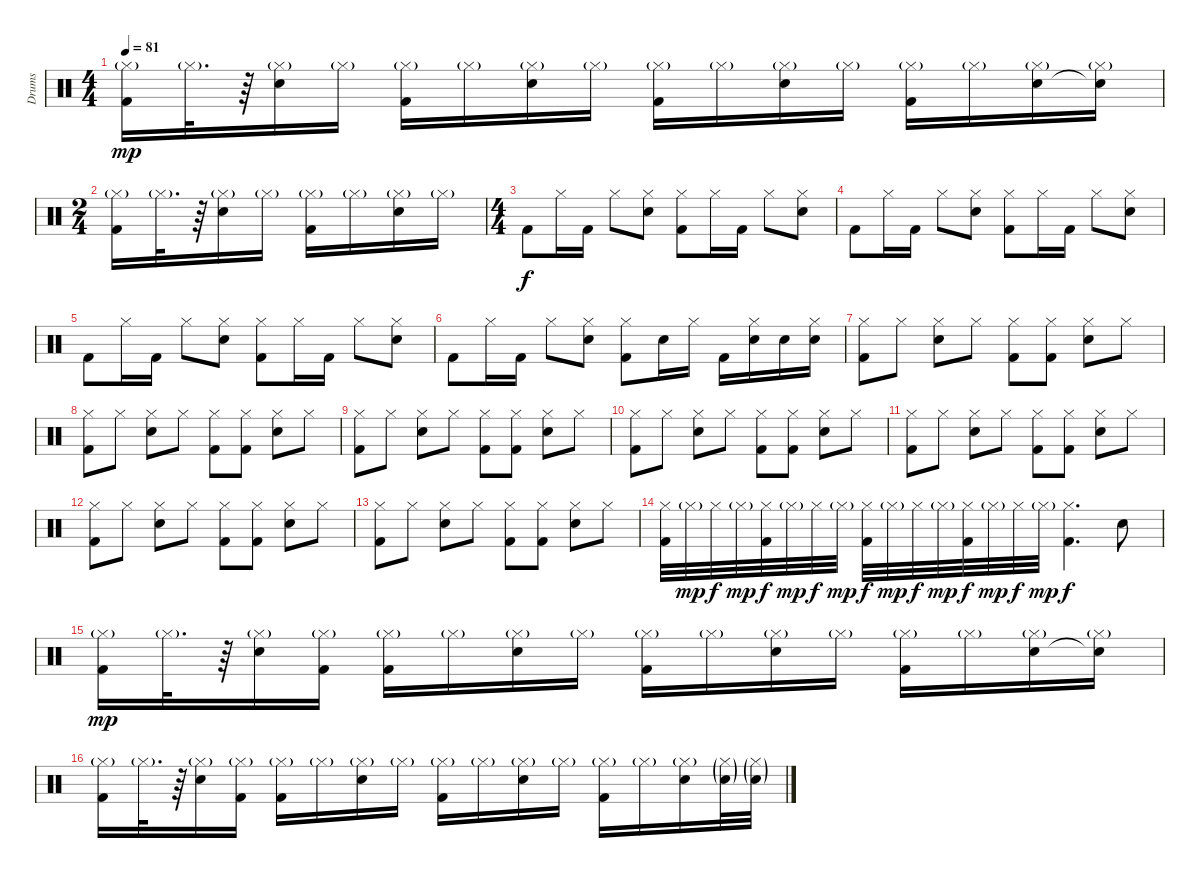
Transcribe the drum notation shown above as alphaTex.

\track ("Drums" "Drums") {instrument percussion}
\staff {score}
\articulation defaults
\ts (4 4)
\tempo 81
\clef neutral
\ks c
("Hi-Hat (closed)"{g} "Kick (hit) 2").16{dy mp} "Hi-Hat (closed)"{g}.32{d} r.64 ("Hi-Hat (closed)"{g} "Snare (hit) 2").16 "Hi-Hat (closed)"{g}.16 ("Hi-Hat (closed)"{g} "Kick (hit) 2").16 "Hi-Hat (closed)"{g}.16 ("Hi-Hat (closed)"{g} "Snare (hit) 2").16 "Hi-Hat (closed)"{g}.16 ("Hi-Hat (closed)"{g} "Kick (hit) 2").16 "Hi-Hat (closed)"{g}.16 ("Hi-Hat (closed)"{g} "Snare (hit) 2").16 "Hi-Hat (closed)"{g}.16 ("Hi-Hat (closed)"{g} "Kick (hit) 2").16 "Hi-Hat (closed)"{g}.16 ("Hi-Hat (closed)"{g} "Snare (hit) 2").16 ("Hi-Hat (closed)"{g} "Snare (hit)"{t}).16 |
\ts (2 4)
("Hi-Hat (closed)"{g} "Kick (hit) 2").16 "Hi-Hat (closed)"{g}.32{d} r.64 ("Hi-Hat (closed)"{g} "Snare (hit) 2").16 "Hi-Hat (closed)"{g}.16 ("Hi-Hat (closed)"{g} "Kick (hit) 2").16 "Hi-Hat (closed)"{g}.16 ("Hi-Hat (closed)"{g} "Snare (hit) 2").16 "Hi-Hat (closed)"{g}.16 |
\ts (4 4)
"Kick (hit) 2".8{dy f} "Hi-Hat (closed)".16 "Kick (hit) 2".16 "Hi-Hat (closed)".8 ("Hi-Hat (closed)" "Snare (hit) 2").8 ("Hi-Hat (closed)" "Kick (hit) 2").8 "Hi-Hat (closed)".16 "Kick (hit) 2".16 "Hi-Hat (closed)".8 ("Hi-Hat (closed)" "Snare (hit) 2").8 |
"Kick (hit) 2".8 "Hi-Hat (closed)".16 "Kick (hit) 2".16 "Hi-Hat (closed)".8 ("Hi-Hat (closed)" "Snare (hit) 2").8 ("Hi-Hat (closed)" "Kick (hit) 2").8 "Hi-Hat (closed)".16 "Kick (hit) 2".16 "Hi-Hat (closed)".8 ("Hi-Hat (closed)" "Snare (hit) 2").8 |
"Kick (hit) 2".8 "Hi-Hat (closed)".16 "Kick (hit) 2".16 "Hi-Hat (closed)".8 ("Hi-Hat (closed)" "Snare (hit) 2").8 ("Hi-Hat (closed)" "Kick (hit) 2").8 "Hi-Hat (closed)".16 "Kick (hit) 2".16 "Hi-Hat (closed)".8 ("Hi-Hat (closed)" "Snare (hit) 2").8 |
"Kick (hit) 2".8 "Hi-Hat (closed)".16 "Kick (hit) 2".16 "Hi-Hat (closed)".8 ("Hi-Hat (closed)" "Snare (hit) 2").8 ("Hi-Hat (closed)" "Kick (hit) 2").8 "Snare (hit) 2".16 "Hi-Hat (closed)".16 "Kick (hit) 2".16 ("Hi-Hat (closed)" "Snare (hit) 2").16 "Snare (hit) 2".16 ("Hi-Hat (closed)" "Snare (hit) 2").16 |
("Hi-Hat (closed)" "Kick (hit) 2").8 "Hi-Hat (closed)".8 ("Hi-Hat (closed)" "Snare (hit) 2").8 "Hi-Hat (closed)".8 ("Hi-Hat (closed)" "Kick (hit) 2").8 ("Hi-Hat (closed)" "Kick (hit) 2").8 ("Hi-Hat (closed)" "Snare (hit) 2").8 "Hi-Hat (closed)".8 |
("Hi-Hat (closed)" "Kick (hit) 2").8 "Hi-Hat (closed)".8 ("Hi-Hat (closed)" "Snare (hit) 2").8 "Hi-Hat (closed)".8 ("Hi-Hat (closed)" "Kick (hit) 2").8 ("Hi-Hat (closed)" "Kick (hit) 2").8 ("Hi-Hat (closed)" "Snare (hit) 2").8 "Hi-Hat (closed)".8 |
("Hi-Hat (closed)" "Kick (hit) 2").8 "Hi-Hat (closed)".8 ("Hi-Hat (closed)" "Snare (hit) 2").8 "Hi-Hat (closed)".8 ("Hi-Hat (closed)" "Kick (hit) 2").8 ("Hi-Hat (closed)" "Kick (hit) 2").8 ("Hi-Hat (closed)" "Snare (hit) 2").8 "Hi-Hat (closed)".8 |
("Hi-Hat (closed)" "Kick (hit) 2").8 "Hi-Hat (closed)".8 ("Hi-Hat (closed)" "Snare (hit) 2").8 "Hi-Hat (closed)".8 ("Hi-Hat (closed)" "Kick (hit) 2").8 ("Hi-Hat (closed)" "Kick (hit) 2").8 ("Hi-Hat (closed)" "Snare (hit) 2").8 "Hi-Hat (closed)".8 |
("Hi-Hat (closed)" "Kick (hit) 2").8 "Hi-Hat (closed)".8 ("Hi-Hat (closed)" "Snare (hit) 2").8 "Hi-Hat (closed)".8 ("Hi-Hat (closed)" "Kick (hit) 2").8 ("Hi-Hat (closed)" "Kick (hit) 2").8 ("Hi-Hat (closed)" "Snare (hit) 2").8 "Hi-Hat (closed)".8 |
("Hi-Hat (closed)" "Kick (hit) 2").8 "Hi-Hat (closed)".8 ("Hi-Hat (closed)" "Snare (hit) 2").8 "Hi-Hat (closed)".8 ("Hi-Hat (closed)" "Kick (hit) 2").8 ("Hi-Hat (closed)" "Kick (hit) 2").8 ("Hi-Hat (closed)" "Snare (hit) 2").8 "Hi-Hat (closed)".8 |
("Hi-Hat (closed)" "Kick (hit) 2").8 "Hi-Hat (closed)".8 ("Hi-Hat (closed)" "Snare (hit) 2").8 "Hi-Hat (closed)".8 ("Hi-Hat (closed)" "Kick (hit) 2").8 ("Hi-Hat (closed)" "Kick (hit) 2").8 ("Hi-Hat (closed)" "Snare (hit) 2").8 "Hi-Hat (closed)".8 |
("Hi-Hat (closed)" "Kick (hit) 2").32 "Hi-Hat (closed)"{g}.32{dy mp} "Hi-Hat (closed)".32{dy f} "Hi-Hat (closed)"{g}.32{dy mp} ("Hi-Hat (closed)" "Kick (hit) 2").32{dy f} "Hi-Hat (closed)"{g}.32{dy mp} "Hi-Hat (closed)".32{dy f} "Hi-Hat (closed)"{g}.32{dy mp} ("Hi-Hat (closed)" "Kick (hit) 2").32{dy f} "Hi-Hat (closed)"{g}.32{dy mp} "Hi-Hat (closed)".32{dy f} "Hi-Hat (closed)"{g}.32{dy mp} ("Hi-Hat (closed)" "Kick (hit) 2").32{dy f} "Hi-Hat (closed)"{g}.32{dy mp} "Hi-Hat (closed)".32{dy f} "Hi-Hat (closed)"{g}.32{dy mp} ("Hi-Hat (closed)" "Kick (hit) 2").4{d dy f} "Snare (hit) 2".8 |
("Hi-Hat (closed)"{g} "Kick (hit) 2").16{dy mp} "Hi-Hat (closed)"{g}.32{d} r.64 ("Hi-Hat (closed)"{g} "Snare (hit) 2").16 ("Hi-Hat (closed)"{g} "Kick (hit) 2").16 ("Hi-Hat (closed)"{g} "Kick (hit) 2").16 "Hi-Hat (closed)"{g}.16 ("Hi-Hat (closed)"{g} "Snare (hit) 2").16 "Hi-Hat (closed)"{g}.16 ("Hi-Hat (closed)"{g} "Kick (hit) 2").16 "Hi-Hat (closed)"{g}.16 ("Hi-Hat (closed)"{g} "Snare (hit) 2").16 "Hi-Hat (closed)"{g}.16 ("Hi-Hat (closed)"{g} "Kick (hit) 2").16 "Hi-Hat (closed)"{g}.16 ("Hi-Hat (closed)"{g} "Snare (hit) 2").16 ("Hi-Hat (closed)"{g} "Snare (hit)"{t}).16 |
("Hi-Hat (closed)"{g} "Kick (hit) 2").16 "Hi-Hat (closed)"{g}.32{d} r.64 ("Hi-Hat (closed)"{g} "Snare (hit) 2").16 ("Hi-Hat (closed)"{g} "Kick (hit) 2").16 ("Hi-Hat (closed)"{g} "Kick (hit) 2").16 "Hi-Hat (closed)"{g}.16 ("Hi-Hat (closed)"{g} "Snare (hit) 2").16 "Hi-Hat (closed)"{g}.16 ("Hi-Hat (closed)"{g} "Kick (hit) 2").16 "Hi-Hat (closed)"{g}.16 ("Hi-Hat (closed)"{g} "Snare (hit) 2").16 "Hi-Hat (closed)"{g}.16 ("Hi-Hat (closed)"{g} "Kick (hit) 2").16 "Hi-Hat (closed)"{g}.16 ("Hi-Hat (closed)"{g} "Snare (hit) 2").16 ("Hi-Hat (closed)"{g} "Snare (hit) 2"{g}).32 ("Hi-Hat (closed)"{g} "Snare (hit) 2"{g}).32
